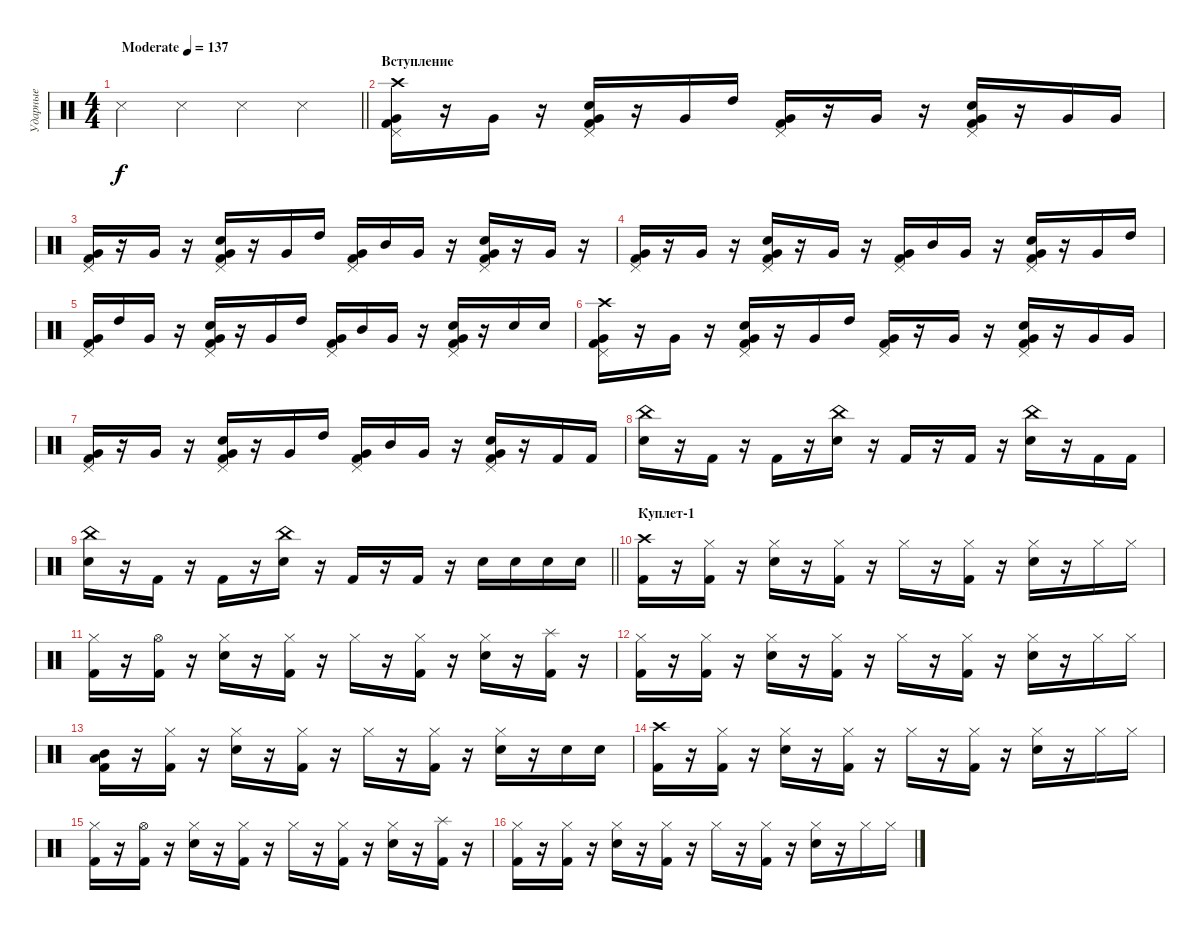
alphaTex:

\track ("Ударные" "Ударные") {instrument percussion}
\staff {score}
\articulation defaults
\ts (4 4)
\tempo (137 "Moderate")
\clef neutral
\barLineRight lightlight
\ks c "Snare (side stick) 3".4{dy f} "Snare (side stick) 3".4 "Snare (side stick) 3".4 "Snare (side stick) 3".4
|
\section ("" "Вступление")
("Kick (hit) 2" "Pedal Hi-Hat (hit)" "Very Low Tom (hit)" "Crash high (hit)").16 r.16 "Very Low Tom (hit)".16 r.16 ("Kick (hit) 2" "Pedal Hi-Hat (hit)" "Very Low Tom (hit)" "Snare (hit) 2").16 r.16 "Very Low Tom (hit)".16 "High Tom (hit)".16 ("Kick (hit) 2" "Pedal Hi-Hat (hit)" "Very Low Tom (hit)").16 r.16 "Very Low Tom (hit)".16 r.16 ("Kick (hit) 2" "Pedal Hi-Hat (hit)" "Very Low Tom (hit)" "Snare (hit) 2").16 r.16 "Very Low Tom (hit)".16 "Very Low Tom (hit)".16 |
("Kick (hit) 2" "Pedal Hi-Hat (hit)" "Very Low Tom (hit)").16 r.16 "Very Low Tom (hit)".16 r.16 ("Kick (hit) 2" "Pedal Hi-Hat (hit)" "Very Low Tom (hit)" "Snare (hit) 2").16 r.16 "Very Low Tom (hit)".16 "High Tom (hit)".16 ("Kick (hit) 2" "Pedal Hi-Hat (hit)" "Very Low Tom (hit)").16 "Mid Tom (hit)".16 "Very Low Tom (hit)".16 r.16 ("Kick (hit) 2" "Pedal Hi-Hat (hit)" "Very Low Tom (hit)" "Snare (hit) 2").16 r.16 "Very Low Tom (hit)".16 r.16 |
("Kick (hit) 2" "Pedal Hi-Hat (hit)" "Very Low Tom (hit)").16 r.16 "Very Low Tom (hit)".16 r.16 ("Kick (hit) 2" "Pedal Hi-Hat (hit)" "Very Low Tom (hit)" "Snare (hit) 2").16 r.16 "Very Low Tom (hit)".16 r.16 ("Kick (hit) 2" "Pedal Hi-Hat (hit)" "Very Low Tom (hit)").16 "Mid Tom (hit)".16 "Very Low Tom (hit)".16 r.16 ("Kick (hit) 2" "Pedal Hi-Hat (hit)" "Very Low Tom (hit)" "Snare (hit) 2").16 r.16 "Very Low Tom (hit)".16 "High Tom (hit)".16 |
("Kick (hit) 2" "Pedal Hi-Hat (hit)" "Very Low Tom (hit)").16 "High Tom (hit)".16 "Very Low Tom (hit)".16 r.16 ("Kick (hit) 2" "Pedal Hi-Hat (hit)" "Very Low Tom (hit)" "Snare (hit) 2").16 r.16 "Very Low Tom (hit)".16 "High Tom (hit)".16 ("Kick (hit) 2" "Pedal Hi-Hat (hit)" "Very Low Tom (hit)").16 "Mid Tom (hit)".16 "Very Low Tom (hit)".16 r.16 ("Kick (hit) 2" "Pedal Hi-Hat (hit)" "Very Low Tom (hit)" "Snare (hit) 2").16 r.16 "Snare (hit) 2".16 "Snare (hit) 2".16 |
("Kick (hit) 2" "Pedal Hi-Hat (hit)" "Very Low Tom (hit)" "Crash high (hit)").16 r.16 "Very Low Tom (hit)".16 r.16 ("Kick (hit) 2" "Pedal Hi-Hat (hit)" "Very Low Tom (hit)" "Snare (hit) 2").16 r.16 "Very Low Tom (hit)".16 "High Tom (hit)".16 ("Kick (hit) 2" "Pedal Hi-Hat (hit)" "Very Low Tom (hit)").16 r.16 "Very Low Tom (hit)".16 r.16 ("Kick (hit) 2" "Pedal Hi-Hat (hit)" "Very Low Tom (hit)" "Snare (hit) 2").16 r.16 "Very Low Tom (hit)".16 "Very Low Tom (hit)".16 |
("Kick (hit) 2" "Pedal Hi-Hat (hit)" "Very Low Tom (hit)").16 r.16 "Very Low Tom (hit)".16 r.16 ("Kick (hit) 2" "Pedal Hi-Hat (hit)" "Very Low Tom (hit)" "Snare (hit) 2").16 r.16 "Very Low Tom (hit)".16 "High Tom (hit)".16 ("Kick (hit) 2" "Pedal Hi-Hat (hit)" "Very Low Tom (hit)").16 "Mid Tom (hit)".16 "Very Low Tom (hit)".16 r.16 ("Kick (hit) 2" "Pedal Hi-Hat (hit)" "Very Low Tom (hit)" "Snare (hit) 2").16 r.16 "Kick (hit) 2".16 "Kick (hit) 2".16 |
("Snare (hit) 2" "China (hit)").16 r.16 "Kick (hit) 2".16 r.16 "Kick (hit) 2".16 r.16 ("Snare (hit) 2" "China (hit)").16 r.16 "Kick (hit) 2".16 r.16 "Kick (hit) 2".16 r.16 ("Snare (hit) 2" "China (hit)").16 r.16 "Kick (hit) 2".16 "Kick (hit) 2".16 |
\barLineRight lightlight
("Snare (hit) 2" "China (hit)").16 r.16 "Kick (hit) 2".16 r.16 "Kick (hit) 2".16 r.16 ("Snare (hit) 2" "China (hit)").16 r.16 "Kick (hit) 2".16 r.16 "Kick (hit) 2".16 r.16 "Snare (hit) 2".16 "Snare (hit) 2".16 "Snare (hit) 2".16 "Snare (hit) 2".16 |
\section ("" "Куплет-1")
("Kick (hit) 2" "Crash high (hit)").16 r.16 ("Kick (hit) 2" "Hi-Hat (closed)").16 r.16 ("Snare (hit) 2" "Hi-Hat (closed)").16 r.16 ("Kick (hit) 2" "Hi-Hat (closed)").16 r.16 "Hi-Hat (closed)".16 r.16 ("Kick (hit) 2" "Hi-Hat (closed)").16 r.16 ("Snare (hit) 2" "Hi-Hat (closed)").16 r.16 "Hi-Hat (closed)".16 "Hi-Hat (closed)".16 |
("Kick (hit) 2" "Hi-Hat (closed)").16 r.16 ("Kick (hit) 2" "Hi-Hat (open)").16 r.16 ("Snare (hit) 2" "Hi-Hat (closed)").16 r.16 ("Kick (hit) 2" "Hi-Hat (closed)").16 r.16 "Hi-Hat (closed)".16 r.16 ("Kick (hit) 2" "Hi-Hat (closed)").16 r.16 ("Snare (hit) 2" "Hi-Hat (closed)").16 r.16 ("Kick (hit) 2" "Splash (hit)").16 r.16 |
("Kick (hit) 2" "Hi-Hat (closed)").16 r.16 ("Kick (hit) 2" "Hi-Hat (closed)").16 r.16 ("Snare (hit) 2" "Hi-Hat (closed)").16 r.16 ("Kick (hit) 2" "Hi-Hat (closed)").16 r.16 "Hi-Hat (closed)".16 r.16 ("Kick (hit) 2" "Hi-Hat (closed)").16 r.16 ("Snare (hit) 2" "Hi-Hat (closed)").16 r.16 "Hi-Hat (closed)".16 "Hi-Hat (closed)".16 |
("Kick (hit) 2" "Low Tom (hit)" "Mid Tom (hit)").16 r.16 ("Kick (hit) 2" "Hi-Hat (closed)").16 r.16 ("Snare (hit) 2" "Hi-Hat (closed)").16 r.16 ("Kick (hit) 2" "Hi-Hat (closed)").16 r.16 "Hi-Hat (closed)".16 r.16 ("Kick (hit) 2" "Hi-Hat (closed)").16 r.16 ("Snare (hit) 2" "Hi-Hat (closed)").16 r.16 "Snare (hit) 2".16 "Snare (hit) 2".16 |
("Kick (hit) 2" "Crash high (hit)").16 r.16 ("Kick (hit) 2" "Hi-Hat (closed)").16 r.16 ("Snare (hit) 2" "Hi-Hat (closed)").16 r.16 ("Kick (hit) 2" "Hi-Hat (closed)").16 r.16 "Hi-Hat (closed)".16 r.16 ("Kick (hit) 2" "Hi-Hat (closed)").16 r.16 ("Snare (hit) 2" "Hi-Hat (closed)").16 r.16 "Hi-Hat (closed)".16 "Hi-Hat (closed)".16 |
("Kick (hit) 2" "Hi-Hat (closed)").16 r.16 ("Kick (hit) 2" "Hi-Hat (open)").16 r.16 ("Snare (hit) 2" "Hi-Hat (closed)").16 r.16 ("Kick (hit) 2" "Hi-Hat (closed)").16 r.16 "Hi-Hat (closed)".16 r.16 ("Kick (hit) 2" "Hi-Hat (closed)").16 r.16 ("Snare (hit) 2" "Hi-Hat (closed)").16 r.16 ("Kick (hit) 2" "Splash (hit)").16 r.16 |
("Kick (hit) 2" "Hi-Hat (closed)").16 r.16 ("Kick (hit) 2" "Hi-Hat (closed)").16 r.16 ("Snare (hit) 2" "Hi-Hat (closed)").16 r.16 ("Kick (hit) 2" "Hi-Hat (closed)").16 r.16 "Hi-Hat (closed)".16 r.16 ("Kick (hit) 2" "Hi-Hat (closed)").16 r.16 ("Snare (hit) 2" "Hi-Hat (closed)").16 r.16 "Hi-Hat (closed)".16 "Hi-Hat (closed)".16
